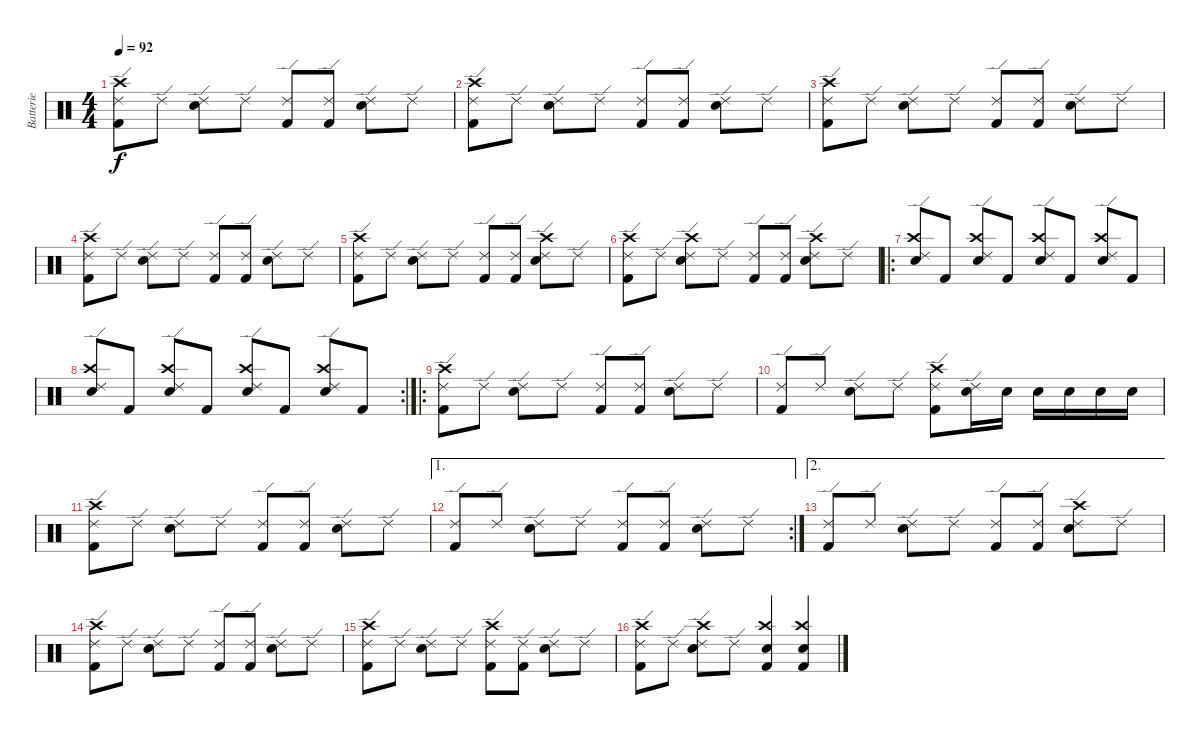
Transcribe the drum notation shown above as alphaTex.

\track ("Batterie" "Batterie") {instrument percussion}
\staff {score}
\articulation defaults
\ts (4 4)
\tempo 92
\clef neutral
\ks c
("Ride (edge) 2" "Kick (hit) 2" "Crash high (hit)").8{dy f} "Ride (edge) 2".8 ("Ride (edge) 2" "Electric Snare (hit)").8 "Ride (edge) 2".8 ("Ride (edge) 2" "Kick (hit) 2").8 ("Ride (edge) 2" "Kick (hit) 2").8 ("Ride (edge) 2" "Electric Snare (hit)").8 "Ride (edge) 2".8 |
("Ride (edge) 2" "Kick (hit) 2" "Crash high (hit)").8 "Ride (edge) 2".8 ("Ride (edge) 2" "Electric Snare (hit)").8 "Ride (edge) 2".8 ("Ride (edge) 2" "Kick (hit) 2").8 ("Ride (edge) 2" "Kick (hit) 2").8 ("Ride (edge) 2" "Electric Snare (hit)").8 "Ride (edge) 2".8 |
("Ride (edge) 2" "Kick (hit) 2" "Crash high (hit)").8 "Ride (edge) 2".8 ("Ride (edge) 2" "Electric Snare (hit)").8 "Ride (edge) 2".8 ("Ride (edge) 2" "Kick (hit) 2").8 ("Ride (edge) 2" "Kick (hit) 2").8 ("Ride (edge) 2" "Electric Snare (hit)").8 "Ride (edge) 2".8 |
("Ride (edge) 2" "Kick (hit) 2" "Crash high (hit)").8 "Ride (edge) 2".8 ("Ride (edge) 2" "Electric Snare (hit)").8 "Ride (edge) 2".8 ("Ride (edge) 2" "Kick (hit) 2").8 ("Ride (edge) 2" "Kick (hit) 2").8 ("Ride (edge) 2" "Electric Snare (hit)").8 "Ride (edge) 2".8 |
("Ride (edge) 2" "Kick (hit) 2" "Crash high (hit)").8 "Ride (edge) 2".8 ("Ride (edge) 2" "Electric Snare (hit)").8 "Ride (edge) 2".8 ("Ride (edge) 2" "Kick (hit) 2").8 ("Ride (edge) 2" "Kick (hit) 2").8 ("Ride (edge) 2" "Electric Snare (hit)" "Crash high (hit)").8 "Ride (edge) 2".8 |
("Ride (edge) 2" "Kick (hit) 2" "Crash high (hit)").8 "Ride (edge) 2".8 ("Ride (edge) 2" "Electric Snare (hit)" "Crash high (hit)").8 "Ride (edge) 2".8 ("Ride (edge) 2" "Kick (hit) 2").8 ("Ride (edge) 2" "Kick (hit) 2").8 ("Ride (edge) 2" "Electric Snare (hit)" "Crash high (hit)").8 "Ride (edge) 2".8 |
\ro
("Ride (edge) 2" "Electric Snare (hit)" "Crash high (hit)").8 "Kick (hit) 2".8 ("Ride (edge) 2" "Electric Snare (hit)" "Crash high (hit)").8 "Kick (hit) 2".8 ("Ride (edge) 2" "Electric Snare (hit)" "Crash high (hit)").8 "Kick (hit) 2".8 ("Ride (edge) 2" "Electric Snare (hit)" "Crash high (hit)").8 "Kick (hit) 2".8 |
\rc 2
("Ride (edge) 2" "Electric Snare (hit)" "Crash high (hit)").8 "Kick (hit) 2".8 ("Ride (edge) 2" "Electric Snare (hit)" "Crash high (hit)").8 "Kick (hit) 2".8 ("Ride (edge) 2" "Electric Snare (hit)" "Crash high (hit)").8 "Kick (hit) 2".8 ("Ride (edge) 2" "Electric Snare (hit)" "Crash high (hit)").8 "Kick (hit) 2".8 |
\ro
("Ride (edge) 2" "Kick (hit) 2" "Crash high (hit)").8 "Ride (edge) 2".8 ("Ride (edge) 2" "Electric Snare (hit)").8 "Ride (edge) 2".8 ("Ride (edge) 2" "Kick (hit) 2").8 ("Ride (edge) 2" "Kick (hit) 2").8 ("Ride (edge) 2" "Electric Snare (hit)").8 "Ride (edge) 2".8 |
("Ride (edge) 2" "Kick (hit) 2").8 "Ride (edge) 2".8 ("Ride (edge) 2" "Electric Snare (hit)").8 "Ride (edge) 2".8 ("Ride (edge) 2" "Kick (hit) 2" "Crash high (hit)").8 ("Ride (edge) 2" "Electric Snare (hit)").16 "Electric Snare (hit)".16 "Electric Snare (hit)".16 "Electric Snare (hit)".16 "Electric Snare (hit)".16 "Electric Snare (hit)".16 |
("Ride (edge) 2" "Kick (hit) 2" "Crash high (hit)").8 "Ride (edge) 2".8 ("Ride (edge) 2" "Electric Snare (hit)").8 "Ride (edge) 2".8 ("Ride (edge) 2" "Kick (hit) 2").8 ("Ride (edge) 2" "Kick (hit) 2").8 ("Ride (edge) 2" "Electric Snare (hit)").8 "Ride (edge) 2".8 |
\ae 1
\rc 2
("Ride (edge) 2" "Kick (hit) 2").8 "Ride (edge) 2".8 ("Ride (edge) 2" "Electric Snare (hit)").8 "Ride (edge) 2".8 ("Ride (edge) 2" "Kick (hit) 2").8 ("Ride (edge) 2" "Kick (hit) 2").8 ("Ride (edge) 2" "Electric Snare (hit)").8 "Ride (edge) 2".8 |
\ae 2
("Ride (edge) 2" "Kick (hit) 2").8 "Ride (edge) 2".8 ("Ride (edge) 2" "Electric Snare (hit)").8 "Ride (edge) 2".8 ("Ride (edge) 2" "Kick (hit) 2").8 ("Ride (edge) 2" "Kick (hit) 2").8 ("Ride (edge) 2" "Electric Snare (hit)" "Crash high (hit)").8 "Ride (edge) 2".8 |
("Ride (edge) 2" "Kick (hit) 2" "Crash high (hit)").8 "Ride (edge) 2".8 ("Ride (edge) 2" "Electric Snare (hit)").8 "Ride (edge) 2".8 ("Ride (edge) 2" "Kick (hit) 2").8 ("Ride (edge) 2" "Kick (hit) 2").8 ("Ride (edge) 2" "Electric Snare (hit)").8 "Ride (edge) 2".8 |
("Ride (edge) 2" "Kick (hit) 2" "Crash high (hit)").8 "Ride (edge) 2".8 ("Ride (edge) 2" "Electric Snare (hit)").8 "Ride (edge) 2".8 ("Ride (edge) 2" "Kick (hit) 2" "Crash high (hit)").8 ("Ride (edge) 2" "Kick (hit) 2").8 ("Ride (edge) 2" "Electric Snare (hit)").8 "Ride (edge) 2".8 |
("Ride (edge) 2" "Kick (hit) 2" "Crash high (hit)").8 "Ride (edge) 2".8 ("Ride (edge) 2" "Electric Snare (hit)" "Crash high (hit)").8 "Ride (edge) 2".8 ("Kick (hit) 2" "Electric Snare (hit)" "Crash high (hit)").4 ("Kick (hit) 2" "Electric Snare (hit)" "Crash high (hit)").4
